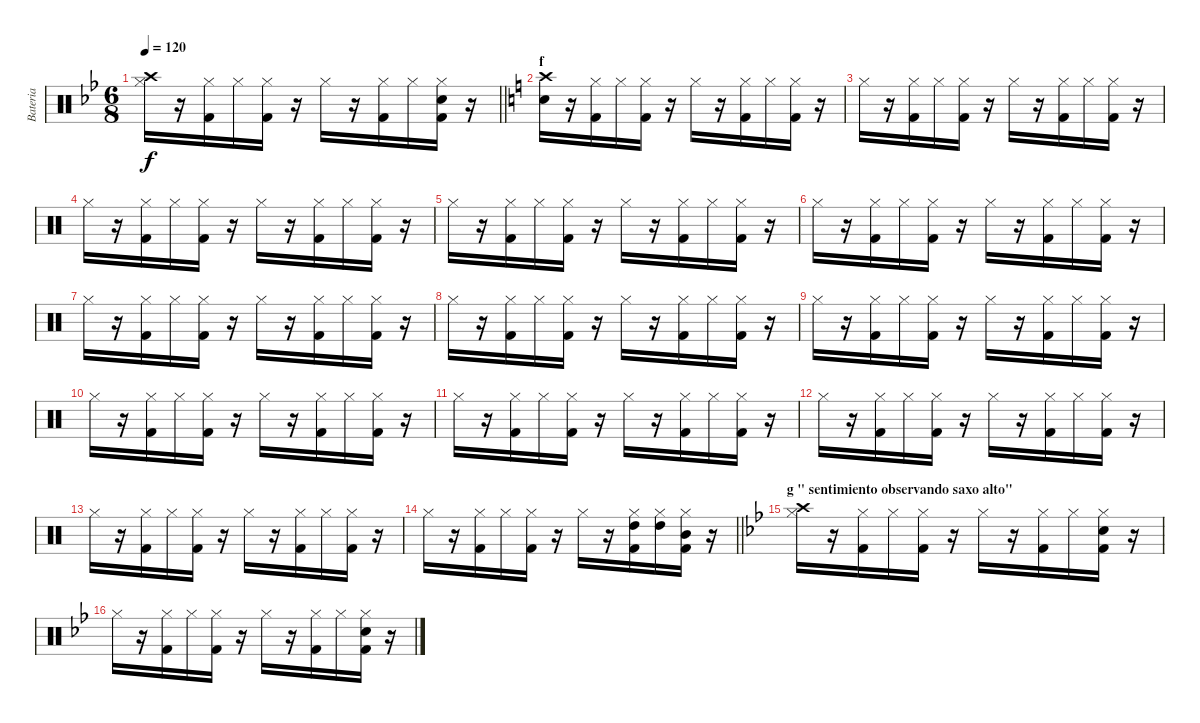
\track ("Bateria" "Bateria") {instrument percussion}
\staff {score}
\articulation defaults
\ts (6 8)
\tempo 120
\clef neutral
\barLineRight lightlight
\ks bb
("Hi-Hat (closed)" "Crash high (hit)").16{dy f} r.16 ("Hi-Hat (closed)" "Kick (hit) 2").16 "Hi-Hat (closed)".16 ("Hi-Hat (closed)" "Kick (hit) 2").16 r.16 "Hi-Hat (closed)".16 r.16 ("Hi-Hat (closed)" "Kick (hit) 2").16 "Hi-Hat (closed)".16 ("Hi-Hat (closed)" "Kick (hit) 2" "Electric Snare (hit)").16 r.16 |
\section ("" "f")
\ks c
("Crash high (hit)" "Snare (hit) 2").16 r.16 ("Hi-Hat (closed)" "Kick (hit) 2").16 "Hi-Hat (closed)".16 ("Hi-Hat (closed)" "Kick (hit) 2").16 r.16 "Hi-Hat (closed)".16 r.16 ("Hi-Hat (closed)" "Kick (hit) 2").16 "Hi-Hat (closed)".16 ("Hi-Hat (closed)" "Kick (hit) 2").16 r.16 |
"Hi-Hat (closed)".16 r.16 ("Hi-Hat (closed)" "Kick (hit) 2").16 "Hi-Hat (closed)".16 ("Hi-Hat (closed)" "Kick (hit) 2").16 r.16 "Hi-Hat (closed)".16 r.16 ("Hi-Hat (closed)" "Kick (hit) 2").16 "Hi-Hat (closed)".16 ("Hi-Hat (closed)" "Kick (hit) 2").16 r.16 |
"Hi-Hat (closed)".16 r.16 ("Hi-Hat (closed)" "Kick (hit) 2").16 "Hi-Hat (closed)".16 ("Hi-Hat (closed)" "Kick (hit) 2").16 r.16 "Hi-Hat (closed)".16 r.16 ("Hi-Hat (closed)" "Kick (hit) 2").16 "Hi-Hat (closed)".16 ("Hi-Hat (closed)" "Kick (hit) 2").16 r.16 |
"Hi-Hat (closed)".16 r.16 ("Hi-Hat (closed)" "Kick (hit) 2").16 "Hi-Hat (closed)".16 ("Hi-Hat (closed)" "Kick (hit) 2").16 r.16 "Hi-Hat (closed)".16 r.16 ("Hi-Hat (closed)" "Kick (hit) 2").16 "Hi-Hat (closed)".16 ("Hi-Hat (closed)" "Kick (hit) 2").16 r.16 |
"Hi-Hat (closed)".16 r.16 ("Hi-Hat (closed)" "Kick (hit) 2").16 "Hi-Hat (closed)".16 ("Hi-Hat (closed)" "Kick (hit) 2").16 r.16 "Hi-Hat (closed)".16 r.16 ("Hi-Hat (closed)" "Kick (hit) 2").16 "Hi-Hat (closed)".16 ("Hi-Hat (closed)" "Kick (hit) 2").16 r.16 |
"Hi-Hat (closed)".16 r.16 ("Hi-Hat (closed)" "Kick (hit) 2").16 "Hi-Hat (closed)".16 ("Hi-Hat (closed)" "Kick (hit) 2").16 r.16 "Hi-Hat (closed)".16 r.16 ("Hi-Hat (closed)" "Kick (hit) 2").16 "Hi-Hat (closed)".16 ("Hi-Hat (closed)" "Kick (hit) 2").16 r.16 |
"Hi-Hat (closed)".16 r.16 ("Hi-Hat (closed)" "Kick (hit) 2").16 "Hi-Hat (closed)".16 ("Hi-Hat (closed)" "Kick (hit) 2").16 r.16 "Hi-Hat (closed)".16 r.16 ("Hi-Hat (closed)" "Kick (hit) 2").16 "Hi-Hat (closed)".16 ("Hi-Hat (closed)" "Kick (hit) 2").16 r.16 |
"Hi-Hat (closed)".16 r.16 ("Hi-Hat (closed)" "Kick (hit) 2").16 "Hi-Hat (closed)".16 ("Hi-Hat (closed)" "Kick (hit) 2").16 r.16 "Hi-Hat (closed)".16 r.16 ("Hi-Hat (closed)" "Kick (hit) 2").16 "Hi-Hat (closed)".16 ("Hi-Hat (closed)" "Kick (hit) 2").16 r.16 |
"Hi-Hat (closed)".16 r.16 ("Hi-Hat (closed)" "Kick (hit) 2").16 "Hi-Hat (closed)".16 ("Hi-Hat (closed)" "Kick (hit) 2").16 r.16 "Hi-Hat (closed)".16 r.16 ("Hi-Hat (closed)" "Kick (hit) 2").16 "Hi-Hat (closed)".16 ("Hi-Hat (closed)" "Kick (hit) 2").16 r.16 |
"Hi-Hat (closed)".16 r.16 ("Hi-Hat (closed)" "Kick (hit) 2").16 "Hi-Hat (closed)".16 ("Hi-Hat (closed)" "Kick (hit) 2").16 r.16 "Hi-Hat (closed)".16 r.16 ("Hi-Hat (closed)" "Kick (hit) 2").16 "Hi-Hat (closed)".16 ("Hi-Hat (closed)" "Kick (hit) 2").16 r.16 |
"Hi-Hat (closed)".16 r.16 ("Hi-Hat (closed)" "Kick (hit) 2").16 "Hi-Hat (closed)".16 ("Hi-Hat (closed)" "Kick (hit) 2").16 r.16 "Hi-Hat (closed)".16 r.16 ("Hi-Hat (closed)" "Kick (hit) 2").16 "Hi-Hat (closed)".16 ("Hi-Hat (closed)" "Kick (hit) 2").16 r.16 |
"Hi-Hat (closed)".16 r.16 ("Hi-Hat (closed)" "Kick (hit) 2").16 "Hi-Hat (closed)".16 ("Hi-Hat (closed)" "Kick (hit) 2").16 r.16 "Hi-Hat (closed)".16 r.16 ("Hi-Hat (closed)" "Kick (hit) 2").16 "Hi-Hat (closed)".16 ("Hi-Hat (closed)" "Kick (hit) 2").16 r.16 |
\barLineRight lightlight "Hi-Hat (closed)".16
r.16 ("Hi-Hat (closed)" "Kick (hit) 2").16 "Hi-Hat (closed)".16 ("Hi-Hat (closed)" "Kick (hit) 2").16 r.16 "Hi-Hat (closed)".16 r.16 ("Hi-Hat (closed)" "Kick (hit) 2" "High Tom (hit)").16 ("Hi-Hat (closed)" "High Tom (hit)").16 ("Hi-Hat (closed)" "Kick (hit) 2" "Mid Tom (hit)").16 r.16 |
\section ("" "g \" sentimiento observando saxo alto\"")
\ks bb
("Hi-Hat (closed)" "Crash high (hit)").16 r.16 ("Hi-Hat (closed)" "Kick (hit) 2").16 "Hi-Hat (closed)".16 ("Hi-Hat (closed)" "Kick (hit) 2").16 r.16 "Hi-Hat (closed)".16 r.16 ("Hi-Hat (closed)" "Kick (hit) 2").16 "Hi-Hat (closed)".16 ("Hi-Hat (closed)" "Kick (hit) 2" "Electric Snare (hit)").16 r.16 |
"Hi-Hat (closed)".16 r.16 ("Hi-Hat (closed)" "Kick (hit) 2").16 "Hi-Hat (closed)".16 ("Hi-Hat (closed)" "Kick (hit) 2").16 r.16 "Hi-Hat (closed)".16 r.16 ("Hi-Hat (closed)" "Kick (hit) 2").16 "Hi-Hat (closed)".16 ("Hi-Hat (closed)" "Kick (hit) 2" "Electric Snare (hit)").16 r.16
